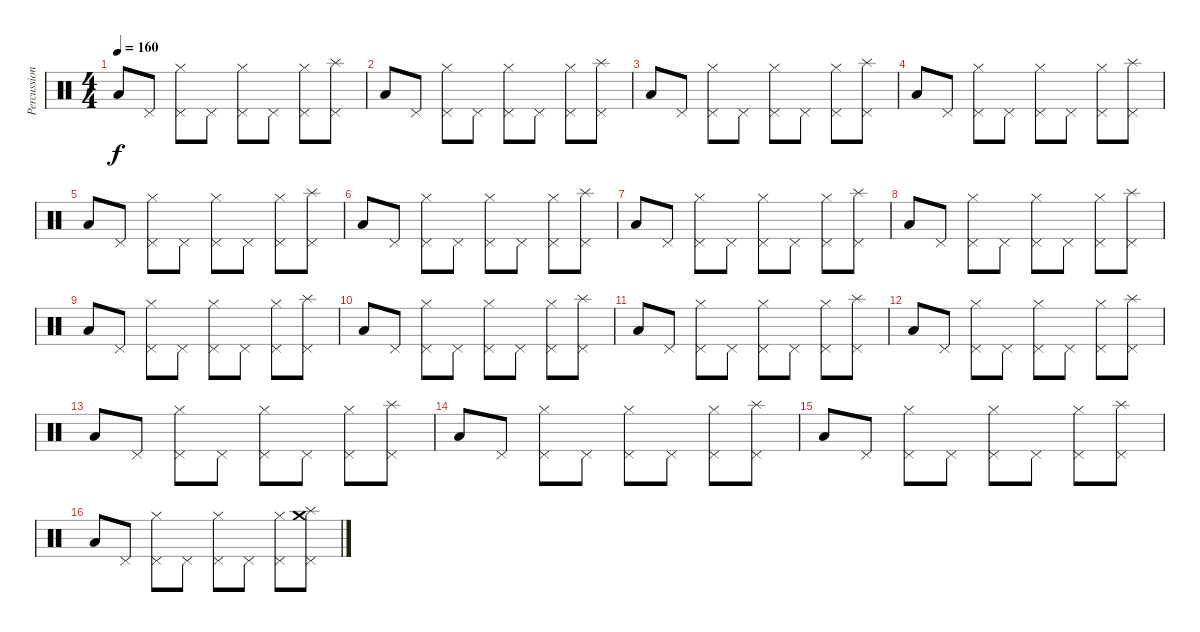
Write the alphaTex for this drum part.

\track ("Percussion" "Percussion") {instrument percussion}
\staff {score}
\articulation defaults
\ts (4 4)
\tempo 160
\clef neutral
\ks c "Low Tom (hit)".8{dy f} "Pedal Hi-Hat (hit)".8
("Pedal Hi-Hat (hit)" "Hi-Hat (closed)").8 "Pedal Hi-Hat (hit)".8 ("Pedal Hi-Hat (hit)" "Hi-Hat (closed)").8 "Pedal Hi-Hat (hit)".8 ("Pedal Hi-Hat (hit)" "Hi-Hat (closed)").8 ("Pedal Hi-Hat (hit)" "Splash (hit)").8 |
"Low Tom (hit)".8 "Pedal Hi-Hat (hit)".8 ("Pedal Hi-Hat (hit)" "Hi-Hat (closed)").8 "Pedal Hi-Hat (hit)".8 ("Pedal Hi-Hat (hit)" "Hi-Hat (closed)").8 "Pedal Hi-Hat (hit)".8 ("Pedal Hi-Hat (hit)" "Hi-Hat (closed)").8 ("Pedal Hi-Hat (hit)" "Splash (hit)").8 |
"Low Tom (hit)".8 "Pedal Hi-Hat (hit)".8 ("Pedal Hi-Hat (hit)" "Hi-Hat (closed)").8 "Pedal Hi-Hat (hit)".8 ("Pedal Hi-Hat (hit)" "Hi-Hat (closed)").8 "Pedal Hi-Hat (hit)".8 ("Pedal Hi-Hat (hit)" "Hi-Hat (closed)").8 ("Pedal Hi-Hat (hit)" "Splash (hit)").8 |
"Low Tom (hit)".8 "Pedal Hi-Hat (hit)".8 ("Pedal Hi-Hat (hit)" "Hi-Hat (closed)").8 "Pedal Hi-Hat (hit)".8 ("Pedal Hi-Hat (hit)" "Hi-Hat (closed)").8 "Pedal Hi-Hat (hit)".8 ("Pedal Hi-Hat (hit)" "Hi-Hat (closed)").8 ("Pedal Hi-Hat (hit)" "Splash (hit)").8 |
"Low Tom (hit)".8 "Pedal Hi-Hat (hit)".8 ("Pedal Hi-Hat (hit)" "Hi-Hat (closed)").8 "Pedal Hi-Hat (hit)".8 ("Pedal Hi-Hat (hit)" "Hi-Hat (closed)").8 "Pedal Hi-Hat (hit)".8 ("Pedal Hi-Hat (hit)" "Hi-Hat (closed)").8 ("Pedal Hi-Hat (hit)" "Splash (hit)").8 |
"Low Tom (hit)".8 "Pedal Hi-Hat (hit)".8 ("Pedal Hi-Hat (hit)" "Hi-Hat (closed)").8 "Pedal Hi-Hat (hit)".8 ("Pedal Hi-Hat (hit)" "Hi-Hat (closed)").8 "Pedal Hi-Hat (hit)".8 ("Pedal Hi-Hat (hit)" "Hi-Hat (closed)").8 ("Pedal Hi-Hat (hit)" "Splash (hit)").8 |
"Low Tom (hit)".8 "Pedal Hi-Hat (hit)".8 ("Pedal Hi-Hat (hit)" "Hi-Hat (closed)").8 "Pedal Hi-Hat (hit)".8 ("Pedal Hi-Hat (hit)" "Hi-Hat (closed)").8 "Pedal Hi-Hat (hit)".8 ("Pedal Hi-Hat (hit)" "Hi-Hat (closed)").8 ("Pedal Hi-Hat (hit)" "Splash (hit)").8 |
"Low Tom (hit)".8 "Pedal Hi-Hat (hit)".8 ("Pedal Hi-Hat (hit)" "Hi-Hat (closed)").8 "Pedal Hi-Hat (hit)".8 ("Pedal Hi-Hat (hit)" "Hi-Hat (closed)").8 "Pedal Hi-Hat (hit)".8 ("Pedal Hi-Hat (hit)" "Hi-Hat (closed)").8 ("Pedal Hi-Hat (hit)" "Splash (hit)").8 |
"Low Tom (hit)".8 "Pedal Hi-Hat (hit)".8 ("Pedal Hi-Hat (hit)" "Hi-Hat (closed)").8 "Pedal Hi-Hat (hit)".8 ("Pedal Hi-Hat (hit)" "Hi-Hat (closed)").8 "Pedal Hi-Hat (hit)".8 ("Pedal Hi-Hat (hit)" "Hi-Hat (closed)").8 ("Pedal Hi-Hat (hit)" "Splash (hit)").8 |
"Low Tom (hit)".8 "Pedal Hi-Hat (hit)".8 ("Pedal Hi-Hat (hit)" "Hi-Hat (closed)").8 "Pedal Hi-Hat (hit)".8 ("Pedal Hi-Hat (hit)" "Hi-Hat (closed)").8 "Pedal Hi-Hat (hit)".8 ("Pedal Hi-Hat (hit)" "Hi-Hat (closed)").8 ("Pedal Hi-Hat (hit)" "Splash (hit)").8 |
"Low Tom (hit)".8 "Pedal Hi-Hat (hit)".8 ("Pedal Hi-Hat (hit)" "Hi-Hat (closed)").8 "Pedal Hi-Hat (hit)".8 ("Pedal Hi-Hat (hit)" "Hi-Hat (closed)").8 "Pedal Hi-Hat (hit)".8 ("Pedal Hi-Hat (hit)" "Hi-Hat (closed)").8 ("Pedal Hi-Hat (hit)" "Splash (hit)").8 |
"Low Tom (hit)".8 "Pedal Hi-Hat (hit)".8 ("Pedal Hi-Hat (hit)" "Hi-Hat (closed)").8 "Pedal Hi-Hat (hit)".8 ("Pedal Hi-Hat (hit)" "Hi-Hat (closed)").8 "Pedal Hi-Hat (hit)".8 ("Pedal Hi-Hat (hit)" "Hi-Hat (closed)").8 ("Pedal Hi-Hat (hit)" "Splash (hit)").8 |
"Low Tom (hit)".8 "Pedal Hi-Hat (hit)".8 ("Pedal Hi-Hat (hit)" "Hi-Hat (closed)").8 "Pedal Hi-Hat (hit)".8 ("Pedal Hi-Hat (hit)" "Hi-Hat (closed)").8 "Pedal Hi-Hat (hit)".8 ("Pedal Hi-Hat (hit)" "Hi-Hat (closed)").8 ("Pedal Hi-Hat (hit)" "Splash (hit)").8 |
"Low Tom (hit)".8 "Pedal Hi-Hat (hit)".8 ("Pedal Hi-Hat (hit)" "Hi-Hat (closed)").8 "Pedal Hi-Hat (hit)".8 ("Pedal Hi-Hat (hit)" "Hi-Hat (closed)").8 "Pedal Hi-Hat (hit)".8 ("Pedal Hi-Hat (hit)" "Hi-Hat (closed)").8 ("Pedal Hi-Hat (hit)" "Splash (hit)").8 |
"Low Tom (hit)".8 "Pedal Hi-Hat (hit)".8 ("Pedal Hi-Hat (hit)" "Hi-Hat (closed)").8 "Pedal Hi-Hat (hit)".8 ("Pedal Hi-Hat (hit)" "Hi-Hat (closed)").8 "Pedal Hi-Hat (hit)".8 ("Pedal Hi-Hat (hit)" "Hi-Hat (closed)").8 ("Pedal Hi-Hat (hit)" "Splash (hit)").8 |
"Low Tom (hit)".8 "Pedal Hi-Hat (hit)".8 ("Pedal Hi-Hat (hit)" "Hi-Hat (closed)").8 "Pedal Hi-Hat (hit)".8 ("Pedal Hi-Hat (hit)" "Hi-Hat (closed)").8 "Pedal Hi-Hat (hit)".8 ("Pedal Hi-Hat (hit)" "Hi-Hat (closed)").8 ("Pedal Hi-Hat (hit)" "Splash (hit)" "Crash medium (hit)").8
